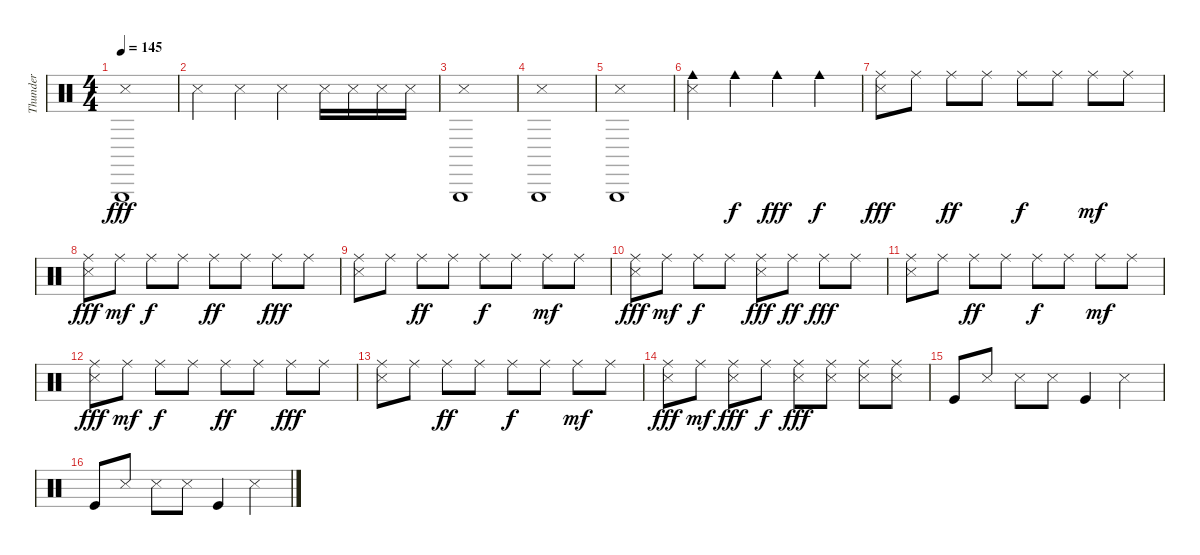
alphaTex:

\track ("Thunder" "Thunder") {instrument percussion}
\staff {score}
\articulation defaults
\ts (4 4)
\tempo 145
\clef neutral
\ks c
("Triangle (hit)" "Snare (side stick) 3").1{dy fff} |
"Snare (side stick) 3".4 "Snare (side stick) 3".4 "Snare (side stick) 3".4 "Snare (side stick) 3".16 "Snare (side stick) 3".16 "Snare (side stick) 3".16 "Snare (side stick) 3".16 |
("Triangle (hit)" "Snare (side stick) 3").1 |
("Triangle (hit)" "Snare (side stick) 3").1 |
("Triangle (hit)" "Snare (side stick) 3").1 |
("Cowbell medium (hit)" "Snare (side stick) 3").4 "Cowbell medium (hit)".4{dy f} "Cowbell medium (hit)".4{dy fff} "Cowbell medium (hit)".4{dy f} |
("Ride (middle)" "Snare (side stick) 3").8{dy fff} "Ride (middle)".8 "Ride (middle)".8{dy ff} "Ride (middle)".8 "Ride (middle)".8{dy f} "Ride (middle)".8 "Ride (middle)".8{dy mf} "Ride (middle)".8 |
("Ride (middle)" "Snare (side stick) 3").8{dy fff} "Ride (middle)".8{dy mf} "Ride (middle)".8{dy f} "Ride (middle)".8 "Ride (middle)".8{dy ff} "Ride (middle)".8 "Ride (middle)".8{dy fff} "Ride (middle)".8 |
("Ride (middle)" "Snare (side stick) 3").8 "Ride (middle)".8 "Ride (middle)".8{dy ff} "Ride (middle)".8 "Ride (middle)".8{dy f} "Ride (middle)".8 "Ride (middle)".8{dy mf} "Ride (middle)".8 |
("Ride (middle)" "Snare (side stick) 3").8{dy fff} "Ride (middle)".8{dy mf} "Ride (middle)".8{dy f} "Ride (middle)".8 ("Ride (middle)" "Snare (side stick) 3").8{dy fff} "Ride (middle)".8{dy ff} "Ride (middle)".8{dy fff} "Ride (middle)".8 |
("Ride (middle)" "Snare (side stick) 3").8 "Ride (middle)".8 "Ride (middle)".8{dy ff} "Ride (middle)".8 "Ride (middle)".8{dy f} "Ride (middle)".8 "Ride (middle)".8{dy mf} "Ride (middle)".8 |
("Ride (middle)" "Snare (side stick) 3").8{dy fff} "Ride (middle)".8{dy mf} "Ride (middle)".8{dy f} "Ride (middle)".8 "Ride (middle)".8{dy ff} "Ride (middle)".8 "Ride (middle)".8{dy fff} "Ride (middle)".8 |
("Ride (middle)" "Snare (side stick) 3").8 "Ride (middle)".8 "Ride (middle)".8{dy ff} "Ride (middle)".8 "Ride (middle)".8{dy f} "Ride (middle)".8 "Ride (middle)".8{dy mf} "Ride (middle)".8 |
("Ride (middle)" "Snare (side stick) 3").8{dy fff} "Ride (middle)".8{dy mf} ("Ride (middle)" "Snare (side stick) 3").8{dy fff} "Ride (middle)".8{dy f} ("Ride (middle)" "Snare (side stick) 3").8{dy fff} ("Ride (middle)" "Snare (side stick) 3").8 ("Ride (middle)" "Snare (side stick) 3").8 ("Ride (middle)" "Snare (side stick) 3").8 |
"Kick (hit)".8 "Snare (side stick) 3".8 "Snare (side stick) 3".8 "Snare (side stick) 3".8 "Kick (hit)".4 "Snare (side stick) 3".4 |
"Kick (hit)".8 "Snare (side stick) 3".8 "Snare (side stick) 3".8 "Snare (side stick) 3".8 "Kick (hit)".4 "Snare (side stick) 3".4
